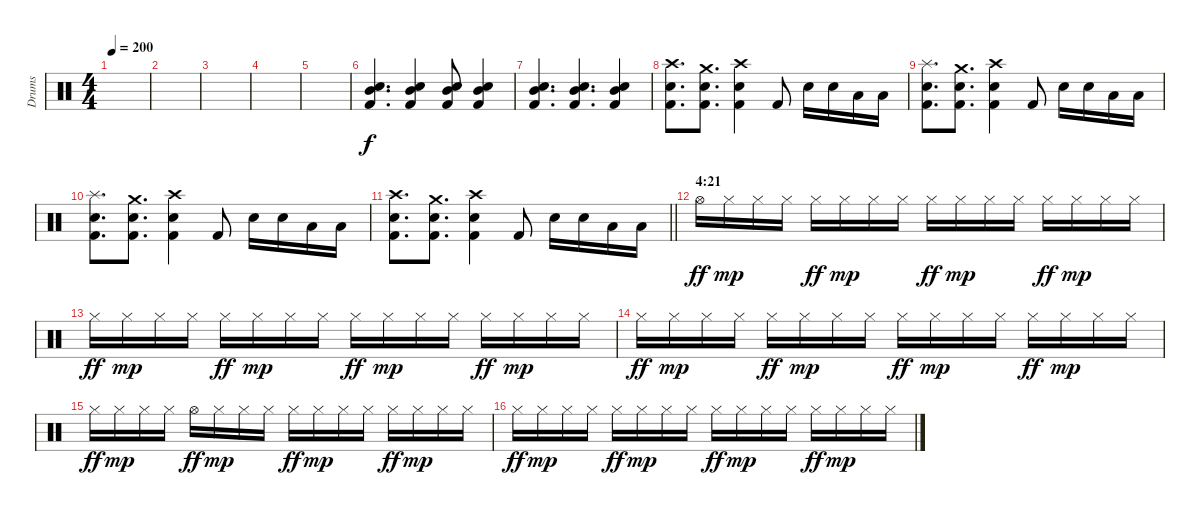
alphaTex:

\track ("Drums" "Drums") {instrument percussion}
\staff {score}
\articulation defaults
\ts (4 4)
\tempo 200
\clef neutral
\ks c
|
|
|
|
|
("Mid Tom (hit)" "Snare (hit) 2" "Kick (hit) 2").4{d dy f} ("Mid Tom (hit)" "Snare (hit) 2" "Kick (hit) 2").4 ("Mid Tom (hit)" "Snare (hit) 2" "Kick (hit) 2").8 ("Mid Tom (hit)" "Snare (hit) 2" "Kick (hit) 2").4 |
("Mid Tom (hit)" "Snare (hit) 2" "Kick (hit) 2").4{d} ("Mid Tom (hit)" "Snare (hit) 2" "Kick (hit) 2").4{d} ("Mid Tom (hit)" "Snare (hit) 2" "Kick (hit) 2").4 |
("Crash high (hit)" "Snare (hit) 2" "Kick (hit) 2").8{d} ("Crash medium (hit)" "Snare (hit) 2" "Kick (hit) 2").8{d} ("Crash high (hit)" "Snare (hit) 2" "Kick (hit) 2").4 "Kick (hit) 2".8 "Snare (hit) 2".16 "Snare (hit) 2".16 "Low Tom (hit)".16 "Low Tom (hit)".16 |
("Splash (hit)" "Snare (hit) 2" "Kick (hit) 2").8{d} ("Crash medium (hit)" "Snare (hit) 2" "Kick (hit) 2").8{d} ("Crash high (hit)" "Snare (hit) 2" "Kick (hit) 2").4 "Kick (hit) 2".8 "Snare (hit) 2".16 "Snare (hit) 2".16 "Low Tom (hit)".16 "Low Tom (hit)".16 |
("Splash (hit)" "Snare (hit) 2" "Kick (hit) 2").8{d} ("Crash medium (hit)" "Snare (hit) 2" "Kick (hit) 2").8{d} ("Crash high (hit)" "Snare (hit) 2" "Kick (hit) 2").4 "Kick (hit) 2".8 "Snare (hit) 2".16 "Snare (hit) 2".16 "Low Tom (hit)".16 "Low Tom (hit)".16 |
\barLineRight lightlight
("Crash high (hit)" "Snare (hit) 2" "Kick (hit) 2").8{d} ("Crash medium (hit)" "Snare (hit) 2" "Kick (hit) 2").8{d} ("Crash high (hit)" "Snare (hit) 2" "Kick (hit) 2").4 "Kick (hit) 2".8 "Snare (hit) 2".16 "Snare (hit) 2".16 "Low Tom (hit)".16 "Low Tom (hit)".16 |
\section ("" "4:21")
"Hi-Hat (open)".16{dy ff} "Hi-Hat (closed)".16{dy mp} "Hi-Hat (closed)".16 "Hi-Hat (closed)".16 "Hi-Hat (closed)".16{dy ff} "Hi-Hat (closed)".16{dy mp} "Hi-Hat (closed)".16 "Hi-Hat (closed)".16 "Hi-Hat (closed)".16{dy ff} "Hi-Hat (closed)".16{dy mp} "Hi-Hat (closed)".16 "Hi-Hat (closed)".16 "Hi-Hat (closed)".16{dy ff} "Hi-Hat (closed)".16{dy mp} "Hi-Hat (closed)".16 "Hi-Hat (closed)".16 |
"Hi-Hat (closed)".16{dy ff} "Hi-Hat (closed)".16{dy mp} "Hi-Hat (closed)".16 "Hi-Hat (closed)".16 "Hi-Hat (closed)".16{dy ff} "Hi-Hat (closed)".16{dy mp} "Hi-Hat (closed)".16 "Hi-Hat (closed)".16 "Hi-Hat (closed)".16{dy ff} "Hi-Hat (closed)".16{dy mp} "Hi-Hat (closed)".16 "Hi-Hat (closed)".16 "Hi-Hat (closed)".16{dy ff} "Hi-Hat (closed)".16{dy mp} "Hi-Hat (closed)".16 "Hi-Hat (closed)".16 |
"Hi-Hat (closed)".16{dy ff} "Hi-Hat (closed)".16{dy mp} "Hi-Hat (closed)".16 "Hi-Hat (closed)".16 "Hi-Hat (closed)".16{dy ff} "Hi-Hat (closed)".16{dy mp} "Hi-Hat (closed)".16 "Hi-Hat (closed)".16 "Hi-Hat (closed)".16{dy ff} "Hi-Hat (closed)".16{dy mp} "Hi-Hat (closed)".16 "Hi-Hat (closed)".16 "Hi-Hat (closed)".16{dy ff} "Hi-Hat (closed)".16{dy mp} "Hi-Hat (closed)".16 "Hi-Hat (closed)".16 |
"Hi-Hat (closed)".16{dy ff} "Hi-Hat (closed)".16{dy mp} "Hi-Hat (closed)".16 "Hi-Hat (closed)".16 "Hi-Hat (open)".16{dy ff} "Hi-Hat (closed)".16{dy mp} "Hi-Hat (closed)".16 "Hi-Hat (closed)".16 "Hi-Hat (closed)".16{dy ff} "Hi-Hat (closed)".16{dy mp} "Hi-Hat (closed)".16 "Hi-Hat (closed)".16 "Hi-Hat (closed)".16{dy ff} "Hi-Hat (closed)".16{dy mp} "Hi-Hat (closed)".16 "Hi-Hat (closed)".16 |
"Hi-Hat (closed)".16{dy ff} "Hi-Hat (closed)".16{dy mp} "Hi-Hat (closed)".16 "Hi-Hat (closed)".16 "Hi-Hat (closed)".16{dy ff} "Hi-Hat (closed)".16{dy mp} "Hi-Hat (closed)".16 "Hi-Hat (closed)".16 "Hi-Hat (closed)".16{dy ff} "Hi-Hat (closed)".16{dy mp} "Hi-Hat (closed)".16 "Hi-Hat (closed)".16 "Hi-Hat (closed)".16{dy ff} "Hi-Hat (closed)".16{dy mp} "Hi-Hat (closed)".16 "Hi-Hat (closed)".16
